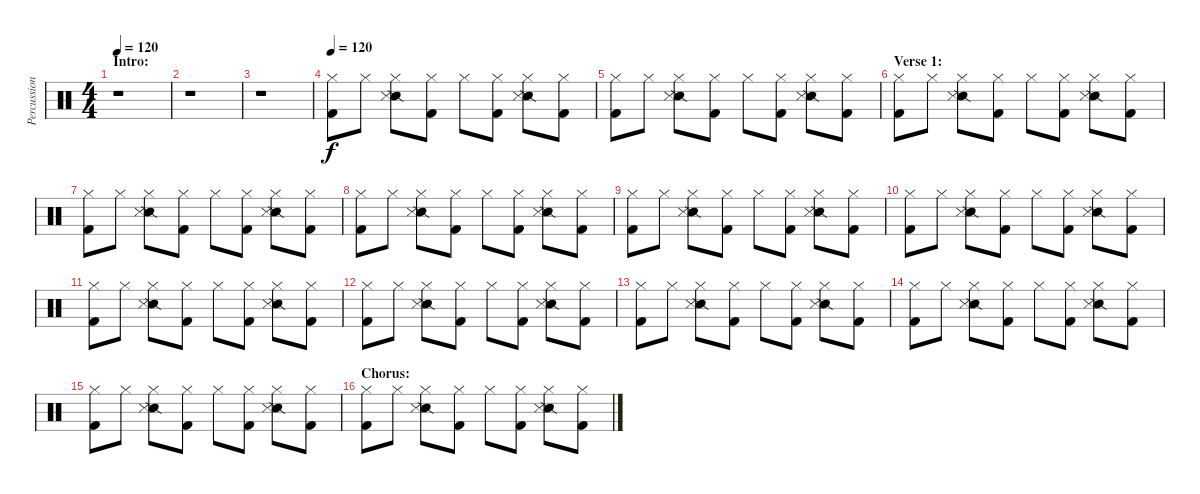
\track ("Percussion" "Percussion") {instrument percussion}
\staff {score}
\articulation defaults
\ts (4 4)
\section ("" "Intro:")
\tempo 120
\tempo 80
\tempo 120
\clef neutral
\ks c
r.1{dy f} |
r.1 |
r.1 |
\tempo 120
("Hi-Hat (closed)" "Kick (hit) 2").8 "Hi-Hat (closed)".8 ("Hi-Hat (closed)" "Snare (side stick) 2" "Snare (side stick) 3").8 ("Hi-Hat (closed)" "Kick (hit) 2").8 "Hi-Hat (closed)".8 ("Hi-Hat (closed)" "Kick (hit) 2").8 ("Hi-Hat (closed)" "Snare (side stick) 2" "Snare (side stick) 3").8 ("Hi-Hat (closed)" "Kick (hit) 2").8 |
("Hi-Hat (closed)" "Kick (hit) 2").8 "Hi-Hat (closed)".8 ("Hi-Hat (closed)" "Snare (side stick) 2" "Snare (side stick) 3").8 ("Hi-Hat (closed)" "Kick (hit) 2").8 "Hi-Hat (closed)".8 ("Hi-Hat (closed)" "Kick (hit) 2").8 ("Hi-Hat (closed)" "Snare (side stick) 2" "Snare (side stick) 3").8 ("Hi-Hat (closed)" "Kick (hit) 2").8 |
\section ("" "Verse 1:")
("Hi-Hat (closed)" "Kick (hit) 2").8 "Hi-Hat (closed)".8 ("Hi-Hat (closed)" "Snare (side stick) 2" "Snare (side stick) 3").8 ("Hi-Hat (closed)" "Kick (hit) 2").8 "Hi-Hat (closed)".8 ("Hi-Hat (closed)" "Kick (hit) 2").8 ("Hi-Hat (closed)" "Snare (side stick) 2" "Snare (side stick) 3").8 ("Hi-Hat (closed)" "Kick (hit) 2").8 |
("Hi-Hat (closed)" "Kick (hit) 2").8 "Hi-Hat (closed)".8 ("Hi-Hat (closed)" "Snare (side stick) 2" "Snare (side stick) 3").8 ("Hi-Hat (closed)" "Kick (hit) 2").8 "Hi-Hat (closed)".8 ("Hi-Hat (closed)" "Kick (hit) 2").8 ("Hi-Hat (closed)" "Snare (side stick) 2" "Snare (side stick) 3").8 ("Hi-Hat (closed)" "Kick (hit) 2").8 |
("Hi-Hat (closed)" "Kick (hit) 2").8 "Hi-Hat (closed)".8 ("Hi-Hat (closed)" "Snare (side stick) 2" "Snare (side stick) 3").8 ("Hi-Hat (closed)" "Kick (hit) 2").8 "Hi-Hat (closed)".8 ("Hi-Hat (closed)" "Kick (hit) 2").8 ("Hi-Hat (closed)" "Snare (side stick) 2" "Snare (side stick) 3").8 ("Hi-Hat (closed)" "Kick (hit) 2").8 |
("Hi-Hat (closed)" "Kick (hit) 2").8 "Hi-Hat (closed)".8 ("Hi-Hat (closed)" "Snare (side stick) 2" "Snare (side stick) 3").8 ("Hi-Hat (closed)" "Kick (hit) 2").8 "Hi-Hat (closed)".8 ("Hi-Hat (closed)" "Kick (hit) 2").8 ("Hi-Hat (closed)" "Snare (side stick) 2" "Snare (side stick) 3").8 ("Hi-Hat (closed)" "Kick (hit) 2").8 |
("Hi-Hat (closed)" "Kick (hit) 2").8 "Hi-Hat (closed)".8 ("Hi-Hat (closed)" "Snare (side stick) 2" "Snare (side stick) 3").8 ("Hi-Hat (closed)" "Kick (hit) 2").8 "Hi-Hat (closed)".8 ("Hi-Hat (closed)" "Kick (hit) 2").8 ("Hi-Hat (closed)" "Snare (side stick) 2" "Snare (side stick) 3").8 ("Hi-Hat (closed)" "Kick (hit) 2").8 |
("Hi-Hat (closed)" "Kick (hit) 2").8 "Hi-Hat (closed)".8 ("Hi-Hat (closed)" "Snare (side stick) 2" "Snare (side stick) 3").8 ("Hi-Hat (closed)" "Kick (hit) 2").8 "Hi-Hat (closed)".8 ("Hi-Hat (closed)" "Kick (hit) 2").8 ("Hi-Hat (closed)" "Snare (side stick) 2" "Snare (side stick) 3").8 ("Hi-Hat (closed)" "Kick (hit) 2").8 |
("Hi-Hat (closed)" "Kick (hit) 2").8 "Hi-Hat (closed)".8 ("Hi-Hat (closed)" "Snare (side stick) 2" "Snare (side stick) 3").8 ("Hi-Hat (closed)" "Kick (hit) 2").8 "Hi-Hat (closed)".8 ("Hi-Hat (closed)" "Kick (hit) 2").8 ("Hi-Hat (closed)" "Snare (side stick) 2" "Snare (side stick) 3").8 ("Hi-Hat (closed)" "Kick (hit) 2").8 |
("Hi-Hat (closed)" "Kick (hit) 2").8 "Hi-Hat (closed)".8 ("Hi-Hat (closed)" "Snare (side stick) 2" "Snare (side stick) 3").8 ("Hi-Hat (closed)" "Kick (hit) 2").8 "Hi-Hat (closed)".8 ("Hi-Hat (closed)" "Kick (hit) 2").8 ("Hi-Hat (closed)" "Snare (side stick) 2" "Snare (side stick) 3").8 ("Hi-Hat (closed)" "Kick (hit) 2").8 |
("Hi-Hat (closed)" "Kick (hit) 2").8 "Hi-Hat (closed)".8 ("Hi-Hat (closed)" "Snare (side stick) 2" "Snare (side stick) 3").8 ("Hi-Hat (closed)" "Kick (hit) 2").8 "Hi-Hat (closed)".8 ("Hi-Hat (closed)" "Kick (hit) 2").8 ("Hi-Hat (closed)" "Snare (side stick) 2" "Snare (side stick) 3").8 ("Hi-Hat (closed)" "Kick (hit) 2").8 |
("Hi-Hat (closed)" "Kick (hit) 2").8 "Hi-Hat (closed)".8 ("Hi-Hat (closed)" "Snare (side stick) 2" "Snare (side stick) 3").8 ("Hi-Hat (closed)" "Kick (hit) 2").8 "Hi-Hat (closed)".8 ("Hi-Hat (closed)" "Kick (hit) 2").8 ("Hi-Hat (closed)" "Snare (side stick) 2" "Snare (side stick) 3").8 ("Hi-Hat (closed)" "Kick (hit) 2").8 |
\section ("" "Chorus:")
("Hi-Hat (closed)" "Kick (hit) 2").8 "Hi-Hat (closed)".8 ("Hi-Hat (closed)" "Snare (side stick) 2" "Snare (side stick) 3").8 ("Hi-Hat (closed)" "Kick (hit) 2").8 "Hi-Hat (closed)".8 ("Hi-Hat (closed)" "Kick (hit) 2").8 ("Hi-Hat (closed)" "Snare (side stick) 2" "Snare (side stick) 3").8 ("Hi-Hat (closed)" "Kick (hit) 2").8
